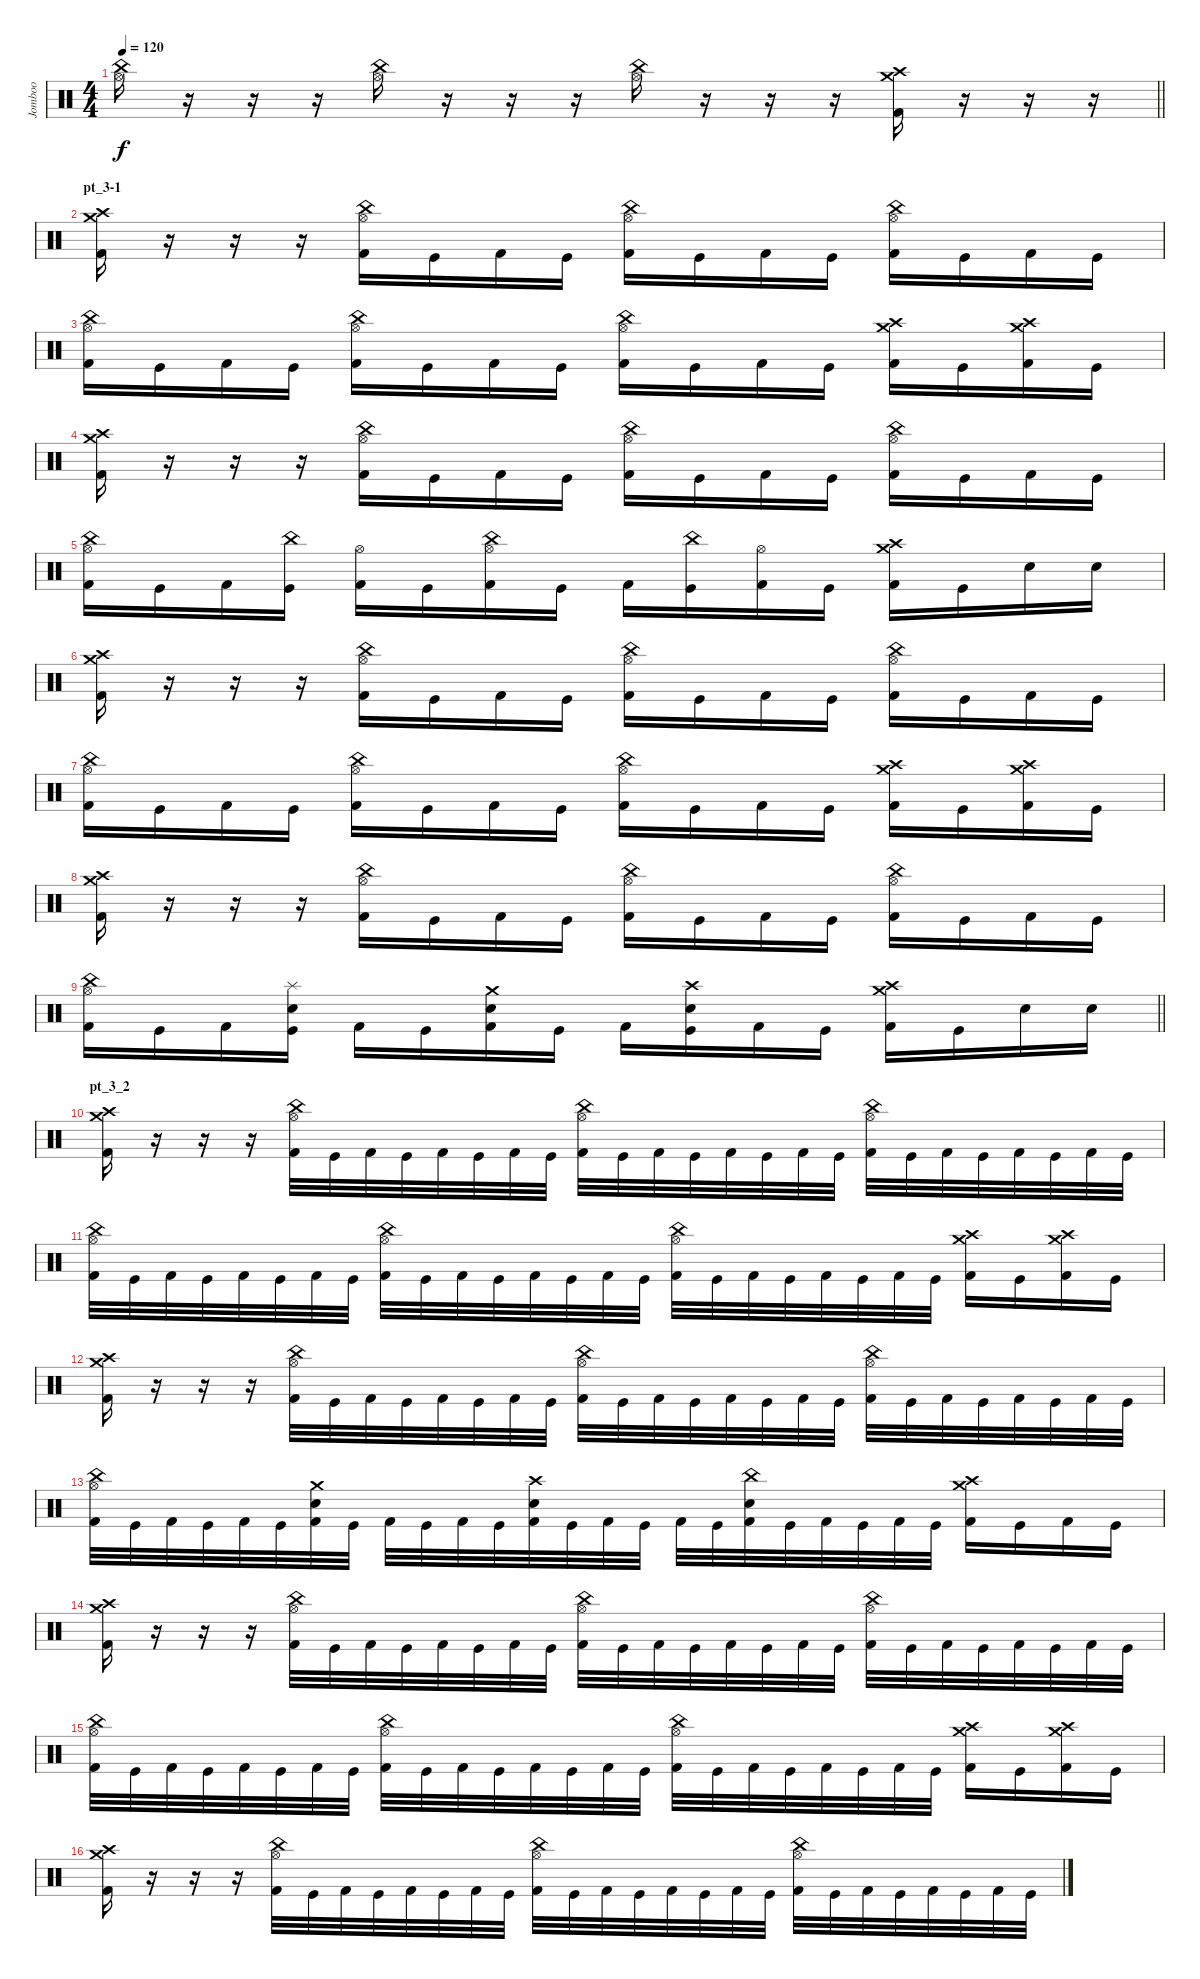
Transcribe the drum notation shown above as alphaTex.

\track ("Jomboo" "Jomboo") {instrument percussion}
\staff
\articulation defaults
\ts (4 4)
\tempo 120
\clef neutral
\barLineRight lightlight
\ks c
("Hi-Hat (open)" "China (hit)").16{dy f} r.16 r.16 r.16 ("Hi-Hat (open)" "China (hit)").16 r.16 r.16 r.16 ("Hi-Hat (open)" "China (hit)").16 r.16 r.16 r.16 ("Crash medium (hit)" "Crash high (hit)" "Kick (hit) 2").16 r.16 r.16 r.16 |
\section ("" "pt_3-1")
("Kick (hit) 2" "Crash medium (hit)" "Crash high (hit)").16 r.16 r.16 r.16 ("Hi-Hat (open)" "China (hit)" "Kick (hit) 2").16 "Kick (hit)".16 "Kick (hit) 2".16 "Kick (hit)".16 ("Hi-Hat (open)" "China (hit)" "Kick (hit) 2").16 "Kick (hit)".16 "Kick (hit) 2".16 "Kick (hit)".16 ("Hi-Hat (open)" "China (hit)" "Kick (hit) 2").16 "Kick (hit)".16 "Kick (hit) 2".16 "Kick (hit)".16 |
("Hi-Hat (open)" "China (hit)" "Kick (hit) 2").16 "Kick (hit)".16 "Kick (hit) 2".16 "Kick (hit)".16 ("Hi-Hat (open)" "China (hit)" "Kick (hit) 2").16 "Kick (hit)".16 "Kick (hit) 2".16 "Kick (hit)".16 ("Hi-Hat (open)" "China (hit)" "Kick (hit) 2").16 "Kick (hit)".16 "Kick (hit) 2".16 "Kick (hit)".16 ("Crash medium (hit)" "Crash high (hit)" "Kick (hit) 2").16 "Kick (hit)".16 ("Crash medium (hit)" "Crash high (hit)" "Kick (hit) 2").16 "Kick (hit)".16 |
("Kick (hit) 2" "Crash medium (hit)" "Crash high (hit)").16 r.16 r.16 r.16 ("Hi-Hat (open)" "China (hit)" "Kick (hit) 2").16 "Kick (hit)".16 "Kick (hit) 2".16 "Kick (hit)".16 ("Hi-Hat (open)" "China (hit)" "Kick (hit) 2").16 "Kick (hit)".16 "Kick (hit) 2".16 "Kick (hit)".16 ("Hi-Hat (open)" "China (hit)" "Kick (hit) 2").16 "Kick (hit)".16 "Kick (hit) 2".16 "Kick (hit)".16 |
("Hi-Hat (open)" "China (hit)" "Kick (hit) 2").16 "Kick (hit)".16 "Kick (hit) 2".16 ("China (hit)" "Kick (hit)").16 ("Hi-Hat (open)" "Kick (hit) 2").16 "Kick (hit)".16 ("Hi-Hat (open)" "China (hit)" "Kick (hit) 2").16 "Kick (hit)".16 "Kick (hit) 2".16 ("China (hit)" "Kick (hit)").16 ("Hi-Hat (open)" "Kick (hit) 2").16 "Kick (hit)".16 ("Crash medium (hit)" "Crash high (hit)" "Kick (hit) 2").16 "Kick (hit)".16 "Electric Snare (hit)".16 "Electric Snare (hit)".16 |
("Kick (hit) 2" "Crash medium (hit)" "Crash high (hit)").16 r.16 r.16 r.16 ("Hi-Hat (open)" "China (hit)" "Kick (hit) 2").16 "Kick (hit)".16 "Kick (hit) 2".16 "Kick (hit)".16 ("Hi-Hat (open)" "China (hit)" "Kick (hit) 2").16 "Kick (hit)".16 "Kick (hit) 2".16 "Kick (hit)".16 ("Hi-Hat (open)" "China (hit)" "Kick (hit) 2").16 "Kick (hit)".16 "Kick (hit) 2".16 "Kick (hit)".16 |
("Hi-Hat (open)" "China (hit)" "Kick (hit) 2").16 "Kick (hit)".16 "Kick (hit) 2".16 "Kick (hit)".16 ("Hi-Hat (open)" "China (hit)" "Kick (hit) 2").16 "Kick (hit)".16 "Kick (hit) 2".16 "Kick (hit)".16 ("Hi-Hat (open)" "China (hit)" "Kick (hit) 2").16 "Kick (hit)".16 "Kick (hit) 2".16 "Kick (hit)".16 ("Crash medium (hit)" "Crash high (hit)" "Kick (hit) 2").16 "Kick (hit)".16 ("Crash medium (hit)" "Crash high (hit)" "Kick (hit) 2").16 "Kick (hit)".16 |
("Kick (hit) 2" "Crash medium (hit)" "Crash high (hit)").16 r.16 r.16 r.16 ("Hi-Hat (open)" "China (hit)" "Kick (hit) 2").16 "Kick (hit)".16 "Kick (hit) 2".16 "Kick (hit)".16 ("Hi-Hat (open)" "China (hit)" "Kick (hit) 2").16 "Kick (hit)".16 "Kick (hit) 2".16 "Kick (hit)".16 ("Hi-Hat (open)" "China (hit)" "Kick (hit) 2").16 "Kick (hit)".16 "Kick (hit) 2".16 "Kick (hit)".16 |
\barLineRight lightlight
("Hi-Hat (open)" "China (hit)" "Kick (hit) 2").16 "Kick (hit)".16 "Kick (hit) 2".16 ("Splash (hit)" "Electric Snare (hit)" "Kick (hit)").16 "Kick (hit) 2".16 "Kick (hit)".16 ("Crash medium (hit)" "Electric Snare (hit)" "Kick (hit) 2").16 "Kick (hit)".16 "Kick (hit) 2".16 ("Crash high (hit)" "Electric Snare (hit)" "Kick (hit)").16 "Kick (hit) 2".16 "Kick (hit)".16 ("Crash medium (hit)" "Crash high (hit)" "Kick (hit) 2").16 "Kick (hit)".16 "Electric Snare (hit)".16 "Electric Snare (hit)".16 |
\section ("" "pt_3_2")
("Kick (hit) 2" "Crash medium (hit)" "Crash high (hit)").16 r.16 r.16 r.16 ("Hi-Hat (open)" "China (hit)" "Kick (hit) 2").32 "Kick (hit)".32 "Kick (hit) 2".32 "Kick (hit)".32 "Kick (hit) 2".32 "Kick (hit)".32 "Kick (hit) 2".32 "Kick (hit)".32 ("Hi-Hat (open)" "China (hit)" "Kick (hit) 2").32 "Kick (hit)".32 "Kick (hit) 2".32 "Kick (hit)".32 "Kick (hit) 2".32 "Kick (hit)".32 "Kick (hit) 2".32 "Kick (hit)".32 ("Hi-Hat (open)" "China (hit)" "Kick (hit) 2").32 "Kick (hit)".32 "Kick (hit) 2".32 "Kick (hit)".32 "Kick (hit) 2".32 "Kick (hit)".32 "Kick (hit) 2".32 "Kick (hit)".32 |
("Hi-Hat (open)" "China (hit)" "Kick (hit) 2").32 "Kick (hit)".32 "Kick (hit) 2".32 "Kick (hit)".32 "Kick (hit) 2".32 "Kick (hit)".32 "Kick (hit) 2".32 "Kick (hit)".32 ("Hi-Hat (open)" "China (hit)" "Kick (hit) 2").32 "Kick (hit)".32 "Kick (hit) 2".32 "Kick (hit)".32 "Kick (hit) 2".32 "Kick (hit)".32 "Kick (hit) 2".32 "Kick (hit)".32 ("Hi-Hat (open)" "China (hit)" "Kick (hit) 2").32 "Kick (hit)".32 "Kick (hit) 2".32 "Kick (hit)".32 "Kick (hit) 2".32 "Kick (hit)".32 "Kick (hit) 2".32 "Kick (hit)".32 ("Crash medium (hit)" "Crash high (hit)" "Kick (hit) 2").16 "Kick (hit)".16 ("Crash medium (hit)" "Crash high (hit)" "Kick (hit) 2").16 "Kick (hit)".16 |
("Kick (hit) 2" "Crash medium (hit)" "Crash high (hit)").16 r.16 r.16 r.16 ("Hi-Hat (open)" "China (hit)" "Kick (hit) 2").32 "Kick (hit)".32 "Kick (hit) 2".32 "Kick (hit)".32 "Kick (hit) 2".32 "Kick (hit)".32 "Kick (hit) 2".32 "Kick (hit)".32 ("Hi-Hat (open)" "China (hit)" "Kick (hit) 2").32 "Kick (hit)".32 "Kick (hit) 2".32 "Kick (hit)".32 "Kick (hit) 2".32 "Kick (hit)".32 "Kick (hit) 2".32 "Kick (hit)".32 ("Hi-Hat (open)" "China (hit)" "Kick (hit) 2").32 "Kick (hit)".32 "Kick (hit) 2".32 "Kick (hit)".32 "Kick (hit) 2".32 "Kick (hit)".32 "Kick (hit) 2".32 "Kick (hit)".32 |
("Hi-Hat (open)" "China (hit)" "Kick (hit) 2").32 "Kick (hit)".32 "Kick (hit) 2".32 "Kick (hit)".32 "Kick (hit) 2".32 "Kick (hit)".32 ("Electric Snare (hit)" "Crash medium (hit)" "Kick (hit) 2").32 "Kick (hit)".32 "Kick (hit) 2".32 "Kick (hit)".32 "Kick (hit) 2".32 "Kick (hit)".32 ("Electric Snare (hit)" "Crash high (hit)" "Kick (hit) 2").32 "Kick (hit)".32 "Kick (hit) 2".32 "Kick (hit)".32 "Kick (hit) 2".32 "Kick (hit)".32 ("China (hit)" "Electric Snare (hit)" "Kick (hit) 2").32 "Kick (hit)".32 "Kick (hit) 2".32 "Kick (hit)".32 "Kick (hit) 2".32 "Kick (hit)".32 ("Crash medium (hit)" "Crash high (hit)" "Kick (hit) 2").16 "Kick (hit)".16 "Kick (hit) 2".16 "Kick (hit)".16 |
("Kick (hit) 2" "Crash medium (hit)" "Crash high (hit)").16 r.16 r.16 r.16 ("Hi-Hat (open)" "China (hit)" "Kick (hit) 2").32 "Kick (hit)".32 "Kick (hit) 2".32 "Kick (hit)".32 "Kick (hit) 2".32 "Kick (hit)".32 "Kick (hit) 2".32 "Kick (hit)".32 ("Hi-Hat (open)" "China (hit)" "Kick (hit) 2").32 "Kick (hit)".32 "Kick (hit) 2".32 "Kick (hit)".32 "Kick (hit) 2".32 "Kick (hit)".32 "Kick (hit) 2".32 "Kick (hit)".32 ("Hi-Hat (open)" "China (hit)" "Kick (hit) 2").32 "Kick (hit)".32 "Kick (hit) 2".32 "Kick (hit)".32 "Kick (hit) 2".32 "Kick (hit)".32 "Kick (hit) 2".32 "Kick (hit)".32 |
("Hi-Hat (open)" "China (hit)" "Kick (hit) 2").32 "Kick (hit)".32 "Kick (hit) 2".32 "Kick (hit)".32 "Kick (hit) 2".32 "Kick (hit)".32 "Kick (hit) 2".32 "Kick (hit)".32 ("Hi-Hat (open)" "China (hit)" "Kick (hit) 2").32 "Kick (hit)".32 "Kick (hit) 2".32 "Kick (hit)".32 "Kick (hit) 2".32 "Kick (hit)".32 "Kick (hit) 2".32 "Kick (hit)".32 ("Hi-Hat (open)" "China (hit)" "Kick (hit) 2").32 "Kick (hit)".32 "Kick (hit) 2".32 "Kick (hit)".32 "Kick (hit) 2".32 "Kick (hit)".32 "Kick (hit) 2".32 "Kick (hit)".32 ("Crash medium (hit)" "Crash high (hit)" "Kick (hit) 2").16 "Kick (hit)".16 ("Crash medium (hit)" "Crash high (hit)" "Kick (hit) 2").16 "Kick (hit)".16 |
("Kick (hit) 2" "Crash medium (hit)" "Crash high (hit)").16 r.16 r.16 r.16 ("Hi-Hat (open)" "China (hit)" "Kick (hit) 2").32 "Kick (hit)".32 "Kick (hit) 2".32 "Kick (hit)".32 "Kick (hit) 2".32 "Kick (hit)".32 "Kick (hit) 2".32 "Kick (hit)".32 ("Hi-Hat (open)" "China (hit)" "Kick (hit) 2").32 "Kick (hit)".32 "Kick (hit) 2".32 "Kick (hit)".32 "Kick (hit) 2".32 "Kick (hit)".32 "Kick (hit) 2".32 "Kick (hit)".32 ("Hi-Hat (open)" "China (hit)" "Kick (hit) 2").32 "Kick (hit)".32 "Kick (hit) 2".32 "Kick (hit)".32 "Kick (hit) 2".32 "Kick (hit)".32 "Kick (hit) 2".32 "Kick (hit)".32
